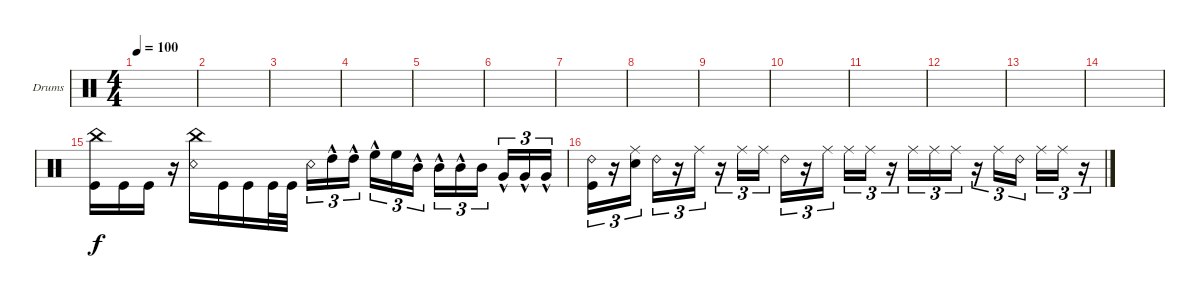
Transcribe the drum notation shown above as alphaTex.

\defaultSystemsLayout 4
\bracketExtendMode groupsimilarinstruments
\firstSystemTrackNameOrientation horizontal
\otherSystemsTrackNameOrientation horizontal
\track ("Drumkit" "Drums") {instrument percussion}
\staff {score}
\articulation defaults
\ts (4 4)
\tempo 100
\clef neutral
\ks c
|
|
|
|
|
|
|
|
|
|
|
|
|
|
("China (hit)" "Kick (hit)").16 "Kick (hit)".16 "Kick (hit)".16 r.16 ("Snare (rim shot)" "China (hit)").16 "Kick (hit)".16 "Kick (hit)".16 "Kick (hit)".32 "Kick (hit)".32 "Snare (rim shot)".16{tu (3 2)} "High Tom (hit)"{hac}.16{tu (3 2)} "High Tom (hit)"{hac}.16{tu (3 2)} "High Floor Tom (hit)"{hac}.16{tu (3 2)} "High Floor Tom (hit)".16{tu (3 2)} "Mid Tom (hit)"{hac}.16{tu (3 2)} "Mid Tom (hit)"{hac}.16{tu (3 2)} "Mid Tom (hit)"{hac}.16{tu (3 2)} "Mid Tom (hit)".16{tu (3 2)} "Very Low Tom (hit)"{hac}.16{tu (3 2)} "Very Low Tom (hit)"{hac}.16{tu (3 2)} "Very Low Tom (hit)"{hac}.16{tu (3 2)} |
("Ride (bell) 2" "Kick (hit)").16{tu (3 2)} r.16{tu (3 2)} ("Ride (middle)" "Snare (hit) 2").16{tu (3 2)} "Ride (bell) 2".16{tu (3 2)} r.16{tu (3 2)} "Ride (middle)".16{tu (3 2)} r.16{tu (3 2)} "Ride (middle)".16{tu (3 2)} "Ride (middle)".16{tu (3 2)} "Ride (bell) 2".16{tu (3 2)} r.16{tu (3 2)} "Ride (middle)".16{tu (3 2)} "Ride (middle)".16{tu (3 2)} "Ride (middle)".16{tu (3 2)} r.16{tu (3 2)} "Ride (middle)".16{tu (3 2)} "Ride (middle)".16{tu (3 2)} "Ride (middle)".16{tu (3 2)} r.16{tu (3 2)} "Ride (middle)".16{tu (3 2)} "Ride (bell) 2".16{tu (3 2)} "Ride (middle)".16{tu (3 2)} "Ride (middle)".16{tu (3 2)} r.16{tu (3 2)}
